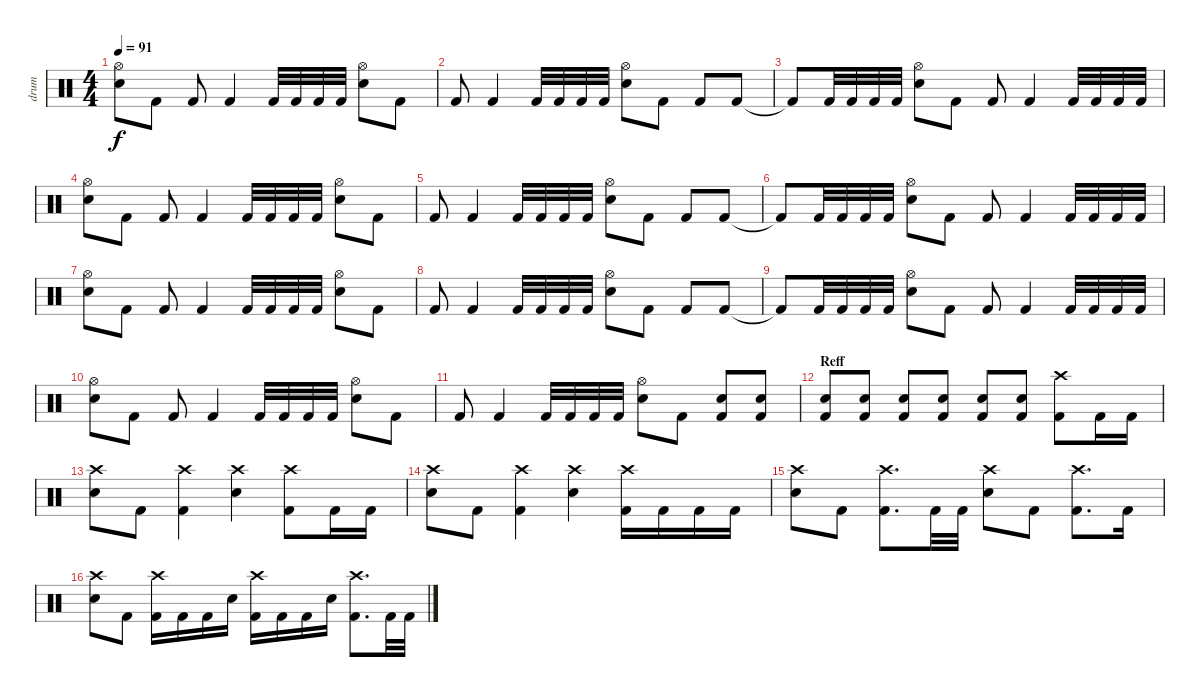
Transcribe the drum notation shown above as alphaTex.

\track ("drum" "drum") {instrument percussion}
\staff {score}
\articulation defaults
\ts (4 4)
\tempo 91
\clef neutral
\ks c
("Hi-Hat (open)" "Electric Snare (hit)").8{dy f} "Kick (hit) 2".8 "Kick (hit) 2".8 "Kick (hit) 2".4 "Kick (hit) 2".32 "Kick (hit) 2".32 "Kick (hit) 2".32 "Kick (hit) 2".32 ("Hi-Hat (open)" "Electric Snare (hit)").8 "Kick (hit) 2".8 |
"Kick (hit) 2".8 "Kick (hit) 2".4 "Kick (hit) 2".32 "Kick (hit) 2".32 "Kick (hit) 2".32 "Kick (hit) 2".32 ("Hi-Hat (open)" "Electric Snare (hit)").8 "Kick (hit) 2".8 "Kick (hit) 2".8 "Kick (hit) 2".8 |
"Kick (hit) 2"{t}.8 "Kick (hit) 2".32 "Kick (hit) 2".32 "Kick (hit) 2".32 "Kick (hit) 2".32 ("Hi-Hat (open)" "Electric Snare (hit)").8 "Kick (hit) 2".8 "Kick (hit) 2".8 "Kick (hit) 2".4 "Kick (hit) 2".32 "Kick (hit) 2".32 "Kick (hit) 2".32 "Kick (hit) 2".32 |
("Hi-Hat (open)" "Electric Snare (hit)").8 "Kick (hit) 2".8 "Kick (hit) 2".8 "Kick (hit) 2".4 "Kick (hit) 2".32 "Kick (hit) 2".32 "Kick (hit) 2".32 "Kick (hit) 2".32 ("Hi-Hat (open)" "Electric Snare (hit)").8 "Kick (hit) 2".8 |
"Kick (hit) 2".8 "Kick (hit) 2".4 "Kick (hit) 2".32 "Kick (hit) 2".32 "Kick (hit) 2".32 "Kick (hit) 2".32 ("Hi-Hat (open)" "Electric Snare (hit)").8 "Kick (hit) 2".8 "Kick (hit) 2".8 "Kick (hit) 2".8 |
"Kick (hit) 2"{t}.8 "Kick (hit) 2".32 "Kick (hit) 2".32 "Kick (hit) 2".32 "Kick (hit) 2".32 ("Hi-Hat (open)" "Electric Snare (hit)").8 "Kick (hit) 2".8 "Kick (hit) 2".8 "Kick (hit) 2".4 "Kick (hit) 2".32 "Kick (hit) 2".32 "Kick (hit) 2".32 "Kick (hit) 2".32 |
("Hi-Hat (open)" "Electric Snare (hit)").8 "Kick (hit) 2".8 "Kick (hit) 2".8 "Kick (hit) 2".4 "Kick (hit) 2".32 "Kick (hit) 2".32 "Kick (hit) 2".32 "Kick (hit) 2".32 ("Hi-Hat (open)" "Electric Snare (hit)").8 "Kick (hit) 2".8 |
"Kick (hit) 2".8 "Kick (hit) 2".4 "Kick (hit) 2".32 "Kick (hit) 2".32 "Kick (hit) 2".32 "Kick (hit) 2".32 ("Hi-Hat (open)" "Electric Snare (hit)").8 "Kick (hit) 2".8 "Kick (hit) 2".8 "Kick (hit) 2".8 |
"Kick (hit) 2"{t}.8 "Kick (hit) 2".32 "Kick (hit) 2".32 "Kick (hit) 2".32 "Kick (hit) 2".32 ("Hi-Hat (open)" "Electric Snare (hit)").8 "Kick (hit) 2".8 "Kick (hit) 2".8 "Kick (hit) 2".4 "Kick (hit) 2".32 "Kick (hit) 2".32 "Kick (hit) 2".32 "Kick (hit) 2".32 |
("Hi-Hat (open)" "Electric Snare (hit)").8 "Kick (hit) 2".8 "Kick (hit) 2".8 "Kick (hit) 2".4 "Kick (hit) 2".32 "Kick (hit) 2".32 "Kick (hit) 2".32 "Kick (hit) 2".32 ("Hi-Hat (open)" "Electric Snare (hit)").8 "Kick (hit) 2".8 |
"Kick (hit) 2".8 "Kick (hit) 2".4 "Kick (hit) 2".32 "Kick (hit) 2".32 "Kick (hit) 2".32 "Kick (hit) 2".32 ("Hi-Hat (open)" "Electric Snare (hit)").8 "Kick (hit) 2".8 ("Electric Snare (hit)" "Kick (hit) 2").8 ("Electric Snare (hit)" "Kick (hit) 2").8 |
\section ("" "Reff")
("Electric Snare (hit)" "Kick (hit) 2").8 ("Electric Snare (hit)" "Kick (hit) 2").8 ("Electric Snare (hit)" "Kick (hit) 2").8 ("Electric Snare (hit)" "Kick (hit) 2").8 ("Electric Snare (hit)" "Kick (hit) 2").8 ("Electric Snare (hit)" "Kick (hit) 2").8 ("Crash high (hit)" "Kick (hit) 2").8 "Kick (hit) 2".16 "Kick (hit) 2".16 |
("Crash high (hit)" "Electric Snare (hit)").8 "Kick (hit) 2".8 ("Crash high (hit)" "Kick (hit) 2").4 ("Crash high (hit)" "Electric Snare (hit)").4 ("Crash high (hit)" "Kick (hit) 2").8 "Kick (hit) 2".16 "Kick (hit) 2".16 |
("Crash high (hit)" "Electric Snare (hit)").8 "Kick (hit) 2".8 ("Crash high (hit)" "Kick (hit) 2").4 ("Crash high (hit)" "Electric Snare (hit)").4 ("Crash high (hit)" "Kick (hit) 2").16 "Kick (hit) 2".16 "Kick (hit) 2".16 "Kick (hit) 2".16 |
("Crash high (hit)" "Electric Snare (hit)").8 "Kick (hit) 2".8 ("Crash high (hit)" "Kick (hit) 2").8{d} "Kick (hit) 2".32 "Kick (hit) 2".32 ("Crash high (hit)" "Electric Snare (hit)").8 "Kick (hit) 2".8 ("Crash high (hit)" "Kick (hit) 2").8{d} "Kick (hit) 2".16 |
("Crash high (hit)" "Electric Snare (hit)").8 "Kick (hit) 2".8 ("Crash high (hit)" "Kick (hit) 2").16 "Kick (hit) 2".16 "Kick (hit) 2".16 "Electric Snare (hit)".16 ("Crash high (hit)" "Kick (hit) 2").16 "Kick (hit) 2".16 "Kick (hit) 2".16 "Electric Snare (hit)".16 ("Crash high (hit)" "Kick (hit) 2").8{d} "Kick (hit) 2".32 "Kick (hit) 2".32
